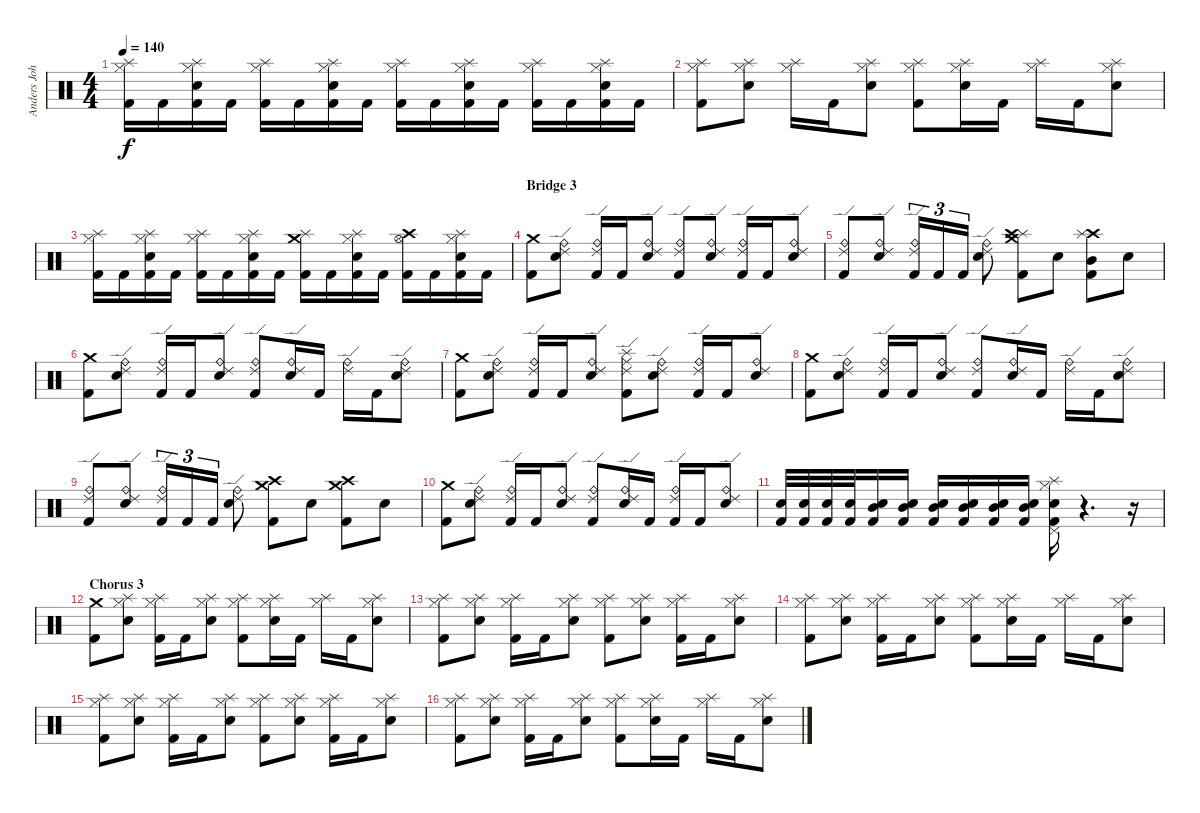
\track ("Anders Johansson :: Drums" "Anders Joh") {instrument percussion}
\staff {score}
\articulation defaults
\ts (4 4)
\tempo 140
\clef neutral
\ks c
("Hi-Hat (closed)" "Splash (hit)" "Kick (hit) 2").16{dy f} "Kick (hit) 2".16 ("Hi-Hat (closed)" "Splash (hit)" "Snare (hit) 2" "Kick (hit) 2").16 "Kick (hit) 2".16 ("Hi-Hat (closed)" "Splash (hit)" "Kick (hit) 2").16 "Kick (hit) 2".16 ("Hi-Hat (closed)" "Splash (hit)" "Snare (hit) 2" "Kick (hit) 2").16 "Kick (hit) 2".16 ("Hi-Hat (closed)" "Splash (hit)" "Kick (hit) 2").16 "Kick (hit) 2".16 ("Hi-Hat (closed)" "Splash (hit)" "Snare (hit) 2" "Kick (hit) 2").16 "Kick (hit) 2".16 ("Hi-Hat (closed)" "Splash (hit)" "Kick (hit) 2").16 "Kick (hit) 2".16 ("Hi-Hat (closed)" "Splash (hit)" "Snare (hit) 2" "Kick (hit) 2").16 "Kick (hit) 2".16 |
("Hi-Hat (closed)" "Splash (hit)" "Kick (hit) 2").8 ("Hi-Hat (closed)" "Splash (hit)" "Snare (hit) 2").8 ("Hi-Hat (closed)" "Splash (hit)").16 "Kick (hit) 2".16 ("Hi-Hat (closed)" "Splash (hit)" "Snare (hit) 2").8 ("Hi-Hat (closed)" "Splash (hit)" "Kick (hit) 2").8 ("Hi-Hat (closed)" "Splash (hit)" "Snare (hit) 2").16 "Kick (hit) 2".16 ("Hi-Hat (closed)" "Splash (hit)").16 "Kick (hit) 2".16 ("Hi-Hat (closed)" "Splash (hit)" "Snare (hit) 2").8 |
("Hi-Hat (closed)" "Splash (hit)" "Kick (hit) 2").16 "Kick (hit) 2".16 ("Hi-Hat (closed)" "Splash (hit)" "Snare (hit) 2" "Kick (hit) 2").16 "Kick (hit) 2".16 ("Hi-Hat (closed)" "Splash (hit)" "Kick (hit) 2").16 "Kick (hit) 2".16 ("Hi-Hat (closed)" "Splash (hit)" "Snare (hit) 2" "Kick (hit) 2").16 "Kick (hit) 2".16 ("Crash medium (hit)" "Splash (hit)" "Kick (hit) 2").16 "Kick (hit) 2".16 ("Hi-Hat (closed)" "Splash (hit)" "Snare (hit) 2" "Kick (hit) 2").16 "Kick (hit) 2".16 ("Crash high (hit)" "Hi-Hat (open)" "Kick (hit) 2").16 "Kick (hit) 2".16 ("Hi-Hat (closed)" "Splash (hit)" "Snare (hit) 2" "Kick (hit) 2").16 "Kick (hit) 2".16 |
\section ("" "Bridge 3")
("Crash medium (hit)" "Kick (hit) 2").8 ("Ride (bell)" "Ride (edge) 2" "Snare (hit) 2").8 ("Ride (bell)" "Ride (edge) 2" "Kick (hit) 2").16 "Kick (hit) 2".16 ("Ride (bell)" "Ride (edge) 2" "Snare (hit) 2").8 ("Ride (bell)" "Ride (edge) 2" "Kick (hit) 2").8 ("Ride (bell)" "Ride (edge) 2" "Snare (hit) 2").8 ("Ride (bell)" "Ride (edge) 2" "Kick (hit) 2").16 "Kick (hit) 2".16 ("Ride (bell)" "Ride (edge) 2" "Snare (hit) 2").8 |
("Ride (bell)" "Ride (edge) 2" "Kick (hit) 2").8 ("Ride (bell)" "Ride (edge) 2" "Snare (hit) 2").8 ("Ride (bell)" "Ride (edge) 2" "Kick (hit) 2").16{tu (3 2)} "Kick (hit) 2".16{tu (3 2)} "Kick (hit) 2".16{tu (3 2)} ("Ride (bell)" "Ride (edge) 2" "Snare (hit) 2").8 ("Crash medium (hit)" "Splash (hit)" "Crash high (hit)" "Kick (hit) 2").8 "Snare (hit) 2".8 ("Mid Tom (hit)" "Crash high (hit)" "Splash (hit)" "Kick (hit) 2").8 "Snare (hit) 2".8 |
("Crash medium (hit)" "Kick (hit) 2").8 ("Ride (bell)" "Ride (edge) 2" "Snare (hit) 2").8 ("Ride (bell)" "Ride (edge) 2" "Kick (hit) 2").16 "Kick (hit) 2".16 ("Ride (bell)" "Ride (edge) 2" "Snare (hit) 2").8 ("Ride (bell)" "Ride (edge) 2" "Kick (hit) 2").8 ("Ride (bell)" "Ride (edge) 2" "Snare (hit) 2").16 "Kick (hit) 2".16 ("Ride (bell)" "Ride (edge) 2").16 "Kick (hit) 2".16 ("Ride (bell)" "Ride (edge) 2" "Snare (hit) 2").8 |
("Crash medium (hit)" "Kick (hit) 2").8 ("Ride (bell)" "Ride (edge) 2" "Snare (hit) 2").8 ("Ride (bell)" "Ride (edge) 2" "Kick (hit) 2").16 "Kick (hit) 2".16 ("Ride (bell)" "Ride (edge) 2" "Snare (hit) 2").8 ("Ride (edge) 2" "Splash (hit)" "Ride (middle)" "Kick (hit) 2").8 ("Ride (bell)" "Ride (edge) 2" "Snare (hit) 2").8 ("Ride (bell)" "Ride (edge) 2" "Kick (hit) 2").16 "Kick (hit) 2".16 ("Ride (bell)" "Ride (edge) 2" "Snare (hit) 2").8 |
("Crash medium (hit)" "Kick (hit) 2").8 ("Ride (bell)" "Ride (edge) 2" "Snare (hit) 2").8 ("Ride (bell)" "Ride (edge) 2" "Kick (hit) 2").16 "Kick (hit) 2".16 ("Ride (bell)" "Ride (edge) 2" "Snare (hit) 2").8 ("Ride (bell)" "Ride (edge) 2" "Kick (hit) 2").8 ("Ride (bell)" "Ride (edge) 2" "Snare (hit) 2").16 "Kick (hit) 2".16 ("Ride (bell)" "Ride (edge) 2").16 "Kick (hit) 2".16 ("Ride (bell)" "Ride (edge) 2" "Snare (hit) 2").8 |
("Ride (bell)" "Ride (edge) 2" "Kick (hit) 2").8 ("Ride (bell)" "Ride (edge) 2" "Snare (hit) 2").8 ("Ride (bell)" "Ride (edge) 2" "Kick (hit) 2").16{tu (3 2)} "Kick (hit) 2".16{tu (3 2)} "Kick (hit) 2".16{tu (3 2)} ("Ride (bell)" "Ride (edge) 2" "Snare (hit) 2").8 ("Crash medium (hit)" "Crash high (hit)" "Kick (hit) 2").8 "Snare (hit) 2".8 ("Crash high (hit)" "Crash medium (hit)" "Kick (hit) 2").8 "Snare (hit) 2".8 |
("Crash medium (hit)" "Kick (hit) 2").8 ("Ride (bell)" "Ride (edge) 2" "Snare (hit) 2").8 ("Ride (bell)" "Ride (edge) 2" "Kick (hit) 2").16 "Kick (hit) 2".16 ("Ride (bell)" "Ride (edge) 2" "Snare (hit) 2").8 ("Ride (bell)" "Ride (edge) 2" "Kick (hit) 2").8 ("Ride (bell)" "Ride (edge) 2" "Snare (hit) 2").16 "Kick (hit) 2".16 ("Ride (bell)" "Ride (edge) 2" "Kick (hit) 2").16 "Kick (hit) 2".16 ("Ride (bell)" "Ride (edge) 2" "Snare (hit) 2").8 |
("Snare (hit) 2" "Kick (hit) 2").32 ("Snare (hit) 2" "Kick (hit) 2").32 ("Snare (hit) 2" "Kick (hit) 2").32 ("Snare (hit) 2" "Kick (hit) 2").32 ("Snare (hit) 2" "Mid Tom (hit)" "Kick (hit) 2").16 ("Snare (hit) 2" "Mid Tom (hit)" "Kick (hit) 2").16 ("Snare (hit) 2" "Mid Tom (hit)" "Kick (hit) 2").16 ("Snare (hit) 2" "Mid Tom (hit)" "Kick (hit) 2").16 ("Snare (hit) 2" "Mid Tom (hit)" "Kick (hit) 2").16 ("Snare (hit) 2" "Mid Tom (hit)" "Kick (hit) 2").16 ("Splash (hit)" "Hi-Hat (closed)" "Pedal Hi-Hat (hit)" "Snare (hit) 2" "Kick (hit) 2").16 r.4{d} r.16 |
\section ("" "Chorus 3")
("Crash medium (hit)" "Kick (hit) 2").8 ("Hi-Hat (closed)" "Splash (hit)" "Snare (hit) 2").8 ("Hi-Hat (closed)" "Splash (hit)" "Kick (hit) 2").16 "Kick (hit) 2".16 ("Hi-Hat (closed)" "Splash (hit)" "Snare (hit) 2").8 ("Hi-Hat (closed)" "Splash (hit)" "Kick (hit) 2").8 ("Hi-Hat (closed)" "Splash (hit)" "Snare (hit) 2").16 "Kick (hit) 2".16 ("Hi-Hat (closed)" "Splash (hit)").16 "Kick (hit) 2".16 ("Hi-Hat (closed)" "Splash (hit)" "Snare (hit) 2").8 |
("Hi-Hat (closed)" "Splash (hit)" "Kick (hit) 2").8 ("Hi-Hat (closed)" "Splash (hit)" "Snare (hit) 2").8 ("Hi-Hat (closed)" "Splash (hit)" "Kick (hit) 2").16 "Kick (hit) 2".16 ("Hi-Hat (closed)" "Splash (hit)" "Snare (hit) 2").8 ("Hi-Hat (closed)" "Splash (hit)" "Kick (hit) 2").8 ("Hi-Hat (closed)" "Splash (hit)" "Snare (hit) 2").8 ("Hi-Hat (closed)" "Splash (hit)" "Kick (hit) 2").16 "Kick (hit) 2".16 ("Hi-Hat (closed)" "Splash (hit)" "Snare (hit) 2").8 |
("Hi-Hat (closed)" "Splash (hit)" "Kick (hit) 2").8 ("Hi-Hat (closed)" "Splash (hit)" "Snare (hit) 2").8 ("Hi-Hat (closed)" "Splash (hit)" "Kick (hit) 2").16 "Kick (hit) 2".16 ("Hi-Hat (closed)" "Splash (hit)" "Snare (hit) 2").8 ("Hi-Hat (closed)" "Splash (hit)" "Kick (hit) 2").8 ("Hi-Hat (closed)" "Splash (hit)" "Snare (hit) 2").16 "Kick (hit) 2".16 ("Hi-Hat (closed)" "Splash (hit)").16 "Kick (hit) 2".16 ("Hi-Hat (closed)" "Splash (hit)" "Snare (hit) 2").8 |
("Hi-Hat (closed)" "Splash (hit)" "Kick (hit) 2").8 ("Hi-Hat (closed)" "Splash (hit)" "Snare (hit) 2").8 ("Hi-Hat (closed)" "Splash (hit)" "Kick (hit) 2").16 "Kick (hit) 2".16 ("Hi-Hat (closed)" "Splash (hit)" "Snare (hit) 2").8 ("Hi-Hat (closed)" "Splash (hit)" "Kick (hit) 2").8 ("Hi-Hat (closed)" "Splash (hit)" "Snare (hit) 2").8 ("Hi-Hat (closed)" "Splash (hit)" "Kick (hit) 2").16 "Kick (hit) 2".16 ("Hi-Hat (closed)" "Splash (hit)" "Snare (hit) 2").8 |
("Hi-Hat (closed)" "Splash (hit)" "Kick (hit) 2").8 ("Hi-Hat (closed)" "Splash (hit)" "Snare (hit) 2").8 ("Hi-Hat (closed)" "Splash (hit)" "Kick (hit) 2").16 "Kick (hit) 2".16 ("Hi-Hat (closed)" "Splash (hit)" "Snare (hit) 2").8 ("Hi-Hat (closed)" "Splash (hit)" "Kick (hit) 2").8 ("Hi-Hat (closed)" "Splash (hit)" "Snare (hit) 2").16 "Kick (hit) 2".16 ("Hi-Hat (closed)" "Splash (hit)").16 "Kick (hit) 2".16 ("Hi-Hat (closed)" "Splash (hit)" "Snare (hit) 2").8
